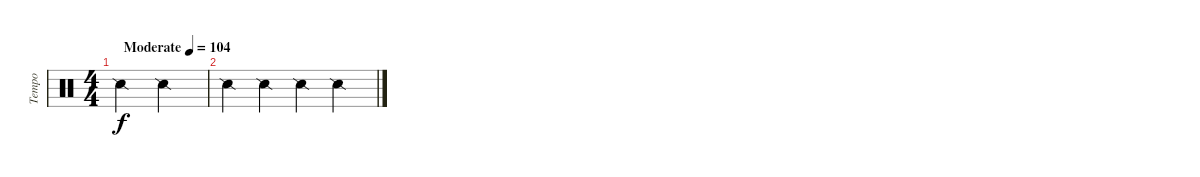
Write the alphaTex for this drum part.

\track ("Tempo" "Tempo") {instrument percussion}
\staff {score}
\articulation defaults
\ts (4 4)
\tempo (104 "Moderate")
\clef neutral
\ks c "Snare (side stick) 2".2{dy f} "Snare (side stick) 2".2
|
"Snare (side stick) 2".4 "Snare (side stick) 2".4 "Snare (side stick) 2".4 "Snare (side stick) 2".4
